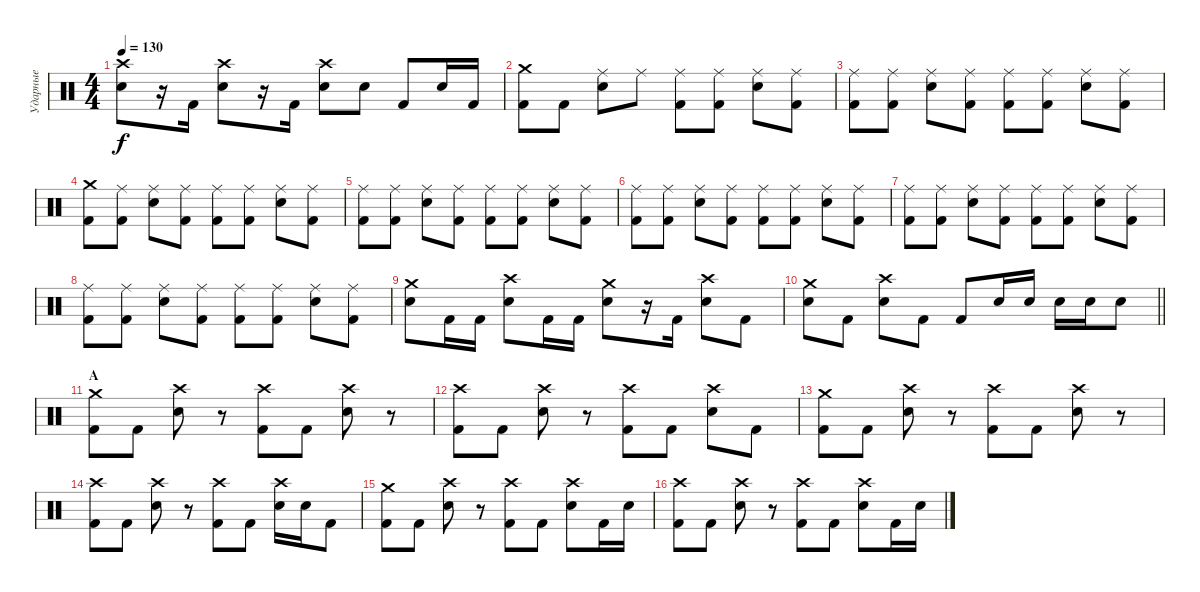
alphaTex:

\track ("Ударные" "Ударные") {instrument percussion}
\staff {score}
\articulation defaults
\ts (4 4)
\tempo 130
\clef neutral
\ks c
("Crash high (hit)" "Electric Snare (hit)").8{dy f} r.16 "Kick (hit) 2".16 ("Crash high (hit)" "Electric Snare (hit)").8 r.16 "Kick (hit) 2".16 ("Crash high (hit)" "Electric Snare (hit)").8 "Electric Snare (hit)".8 "Kick (hit) 2".8 "Electric Snare (hit)".16 "Kick (hit) 2".16 |
("Crash medium (hit)" "Kick (hit) 2").8 "Kick (hit) 2".8 ("Ride (middle)" "Electric Snare (hit)").8 "Ride (middle)".8 ("Ride (middle)" "Kick (hit) 2").8 ("Ride (middle)" "Kick (hit) 2").8 ("Ride (middle)" "Electric Snare (hit)").8 ("Ride (middle)" "Kick (hit) 2").8 |
("Ride (middle)" "Kick (hit) 2").8 ("Ride (middle)" "Kick (hit) 2").8 ("Ride (middle)" "Electric Snare (hit)").8 ("Ride (middle)" "Kick (hit) 2").8 ("Ride (middle)" "Kick (hit) 2").8 ("Ride (middle)" "Kick (hit) 2").8 ("Ride (middle)" "Electric Snare (hit)").8 ("Ride (middle)" "Kick (hit) 2").8 |
("Crash medium (hit)" "Kick (hit) 2").8 ("Ride (middle)" "Kick (hit) 2").8 ("Ride (middle)" "Electric Snare (hit)").8 ("Ride (middle)" "Kick (hit) 2").8 ("Ride (middle)" "Kick (hit) 2").8 ("Ride (middle)" "Kick (hit) 2").8 ("Ride (middle)" "Electric Snare (hit)").8 ("Ride (middle)" "Kick (hit) 2").8 |
("Ride (middle)" "Kick (hit) 2").8 ("Ride (middle)" "Kick (hit) 2").8 ("Ride (middle)" "Electric Snare (hit)").8 ("Ride (middle)" "Kick (hit) 2").8 ("Ride (middle)" "Kick (hit) 2").8 ("Ride (middle)" "Kick (hit) 2").8 ("Ride (middle)" "Electric Snare (hit)").8 ("Ride (middle)" "Kick (hit) 2").8 |
("Ride (middle)" "Kick (hit) 2").8 ("Ride (middle)" "Kick (hit) 2").8 ("Ride (middle)" "Electric Snare (hit)").8 ("Ride (middle)" "Kick (hit) 2").8 ("Ride (middle)" "Kick (hit) 2").8 ("Ride (middle)" "Kick (hit) 2").8 ("Ride (middle)" "Electric Snare (hit)").8 ("Ride (middle)" "Kick (hit) 2").8 |
("Ride (middle)" "Kick (hit) 2").8 ("Ride (middle)" "Kick (hit) 2").8 ("Ride (middle)" "Electric Snare (hit)").8 ("Ride (middle)" "Kick (hit) 2").8 ("Ride (middle)" "Kick (hit) 2").8 ("Ride (middle)" "Kick (hit) 2").8 ("Ride (middle)" "Electric Snare (hit)").8 ("Ride (middle)" "Kick (hit) 2").8 |
("Ride (middle)" "Kick (hit) 2").8 ("Ride (middle)" "Kick (hit) 2").8 ("Ride (middle)" "Electric Snare (hit)").8 ("Ride (middle)" "Kick (hit) 2").8 ("Ride (middle)" "Kick (hit) 2").8 ("Ride (middle)" "Kick (hit) 2").8 ("Ride (middle)" "Electric Snare (hit)").8 ("Ride (middle)" "Kick (hit) 2").8 |
("Crash medium (hit)" "Electric Snare (hit)").8 "Kick (hit) 2".16 "Kick (hit) 2".16 ("Crash high (hit)" "Electric Snare (hit)").8 "Kick (hit) 2".16 "Kick (hit) 2".16 ("Crash medium (hit)" "Electric Snare (hit)").8 r.16 "Kick (hit) 2".16 ("Crash high (hit)" "Electric Snare (hit)").8 "Kick (hit) 2".8 |
\barLineRight lightlight
("Crash medium (hit)" "Electric Snare (hit)").8 "Kick (hit) 2".8 ("Crash high (hit)" "Electric Snare (hit)").8 "Kick (hit) 2".8 "Kick (hit) 2".8 "Electric Snare (hit)".16 "Electric Snare (hit)".16 "Electric Snare (hit)".16 "Electric Snare (hit)".16 "Electric Snare (hit)".8 |
\section ("" "A")
("Crash medium (hit)" "Kick (hit) 2").8 "Kick (hit) 2".8 ("Crash high (hit)" "Electric Snare (hit)").8 r.8 ("Crash high (hit)" "Kick (hit) 2").8 "Kick (hit) 2".8 ("Crash high (hit)" "Electric Snare (hit)").8 r.8 |
("Crash high (hit)" "Kick (hit) 2").8 "Kick (hit) 2".8 ("Crash high (hit)" "Electric Snare (hit)").8 r.8 ("Crash high (hit)" "Kick (hit) 2").8 "Kick (hit) 2".8 ("Crash high (hit)" "Electric Snare (hit)").8 "Kick (hit) 2".8 |
("Crash medium (hit)" "Kick (hit) 2").8 "Kick (hit) 2".8 ("Crash high (hit)" "Electric Snare (hit)").8 r.8 ("Crash high (hit)" "Kick (hit) 2").8 "Kick (hit) 2".8 ("Crash high (hit)" "Electric Snare (hit)").8 r.8 |
("Crash high (hit)" "Kick (hit) 2").8 "Kick (hit) 2".8 ("Crash high (hit)" "Electric Snare (hit)").8 r.8 ("Crash high (hit)" "Kick (hit) 2").8 "Kick (hit) 2".8 ("Crash high (hit)" "Electric Snare (hit)").16 "Electric Snare (hit)".16 "Kick (hit) 2".8 |
("Crash medium (hit)" "Kick (hit) 2").8 "Kick (hit) 2".8 ("Crash high (hit)" "Electric Snare (hit)").8 r.8 ("Crash high (hit)" "Kick (hit) 2").8 "Kick (hit) 2".8 ("Crash high (hit)" "Electric Snare (hit)").8 "Kick (hit) 2".16 "Electric Snare (hit)".16 |
("Crash high (hit)" "Kick (hit) 2").8 "Kick (hit) 2".8 ("Crash high (hit)" "Electric Snare (hit)").8 r.8 ("Crash high (hit)" "Kick (hit) 2").8 "Kick (hit) 2".8 ("Crash high (hit)" "Electric Snare (hit)").8 "Kick (hit) 2".16 "Electric Snare (hit)".16
